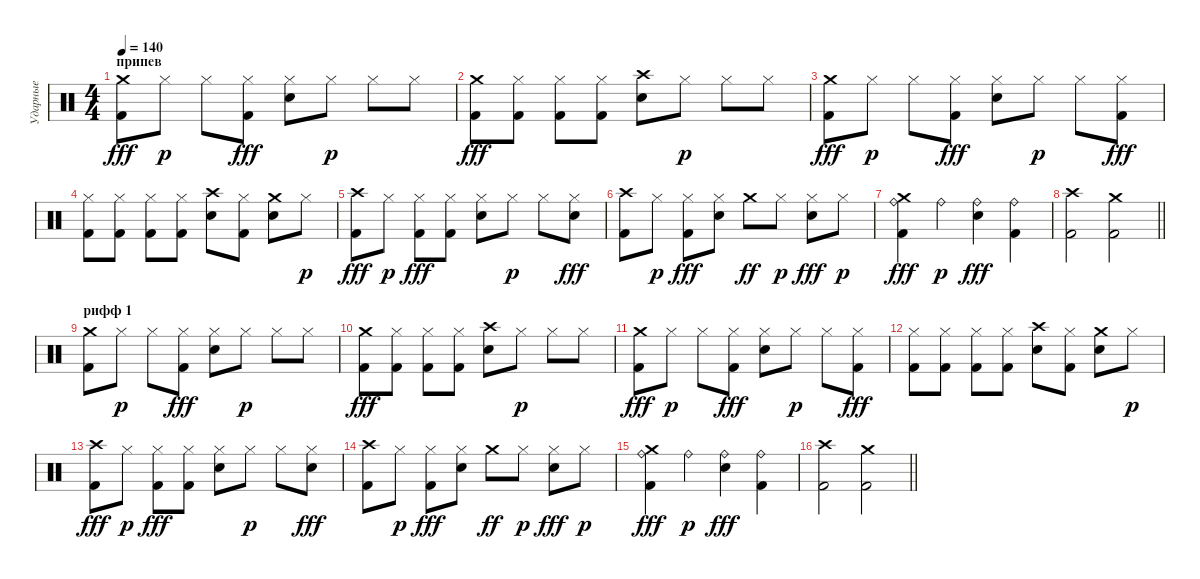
\track ("Ударные" "Ударные") {instrument percussion}
\staff {score}
\articulation defaults
\ts (4 4)
\section ("" "припев")
\tempo 140
\clef neutral
\ks c
("Crash medium (hit)" "Kick (hit) 2").8{dy fff} "Hi-Hat (closed)".8{dy p} "Hi-Hat (closed)".8 ("Hi-Hat (closed)" "Kick (hit) 2").8{dy fff} ("Hi-Hat (closed)" "Snare (hit) 2").8 "Hi-Hat (closed)".8{dy p} "Hi-Hat (closed)".8 "Hi-Hat (closed)".8 |
("Crash medium (hit)" "Kick (hit) 2").8{dy fff} ("Hi-Hat (closed)" "Kick (hit) 2").8 ("Hi-Hat (closed)" "Kick (hit) 2").8 ("Hi-Hat (closed)" "Kick (hit) 2").8 ("Crash high (hit)" "Snare (hit) 2").8 "Hi-Hat (closed)".8{dy p} "Hi-Hat (closed)".8 "Hi-Hat (closed)".8 |
("Crash medium (hit)" "Kick (hit) 2").8{dy fff} "Hi-Hat (closed)".8{dy p} "Hi-Hat (closed)".8 ("Hi-Hat (closed)" "Kick (hit) 2").8{dy fff} ("Hi-Hat (closed)" "Snare (hit) 2").8 "Hi-Hat (closed)".8{dy p} "Hi-Hat (closed)".8 ("Hi-Hat (closed)" "Kick (hit) 2").8{dy fff} |
("Hi-Hat (closed)" "Kick (hit) 2").8 ("Hi-Hat (closed)" "Kick (hit) 2").8 ("Hi-Hat (closed)" "Kick (hit) 2").8 ("Hi-Hat (closed)" "Kick (hit) 2").8 ("Crash high (hit)" "Snare (hit) 2").8 ("Hi-Hat (closed)" "Kick (hit) 2").8 ("Crash medium (hit)" "Snare (hit) 2").8 "Hi-Hat (closed)".8{dy p} |
("Crash high (hit)" "Kick (hit) 2").8{dy fff} "Hi-Hat (closed)".8{dy p} ("Hi-Hat (closed)" "Kick (hit) 2").8{dy fff} ("Hi-Hat (closed)" "Kick (hit) 2").8 ("Hi-Hat (closed)" "Snare (hit) 2").8 "Hi-Hat (closed)".8{dy p} "Hi-Hat (closed)".8 ("Hi-Hat (closed)" "Snare (hit) 2").8{dy fff} |
("Crash high (hit)" "Kick (hit) 2").8 "Hi-Hat (closed)".8{dy p} ("Hi-Hat (closed)" "Kick (hit) 2").8{dy fff} ("Hi-Hat (closed)" "Snare (hit) 2").8 "Crash medium (hit)".8{dy ff} "Hi-Hat (closed)".8{dy p} ("Hi-Hat (closed)" "Snare (hit) 2").8{dy fff} "Hi-Hat (closed)".8{dy p} |
("Crash medium (hit)" "Ride (bell)" "Kick (hit) 2").4{dy fff} "Ride (bell)".4{dy p} ("Ride (bell)" "Snare (hit) 2").4{dy fff} ("Ride (bell)" "Kick (hit) 2").4 |
\barLineRight lightlight
("Crash high (hit)" "Kick (hit) 2").2 ("Crash medium (hit)" "Kick (hit) 2").2 |
\section ("" "рифф 1")
("Crash medium (hit)" "Kick (hit) 2").8 "Hi-Hat (closed)".8{dy p} "Hi-Hat (closed)".8 ("Hi-Hat (closed)" "Kick (hit) 2").8{dy fff} ("Hi-Hat (closed)" "Snare (hit) 2").8 "Hi-Hat (closed)".8{dy p} "Hi-Hat (closed)".8 "Hi-Hat (closed)".8 |
("Crash medium (hit)" "Kick (hit) 2").8{dy fff} ("Hi-Hat (closed)" "Kick (hit) 2").8 ("Hi-Hat (closed)" "Kick (hit) 2").8 ("Hi-Hat (closed)" "Kick (hit) 2").8 ("Crash high (hit)" "Snare (hit) 2").8 "Hi-Hat (closed)".8{dy p} "Hi-Hat (closed)".8 "Hi-Hat (closed)".8 |
("Crash medium (hit)" "Kick (hit) 2").8{dy fff} "Hi-Hat (closed)".8{dy p} "Hi-Hat (closed)".8 ("Hi-Hat (closed)" "Kick (hit) 2").8{dy fff} ("Hi-Hat (closed)" "Snare (hit) 2").8 "Hi-Hat (closed)".8{dy p} "Hi-Hat (closed)".8 ("Hi-Hat (closed)" "Kick (hit) 2").8{dy fff} |
("Hi-Hat (closed)" "Kick (hit) 2").8 ("Hi-Hat (closed)" "Kick (hit) 2").8 ("Hi-Hat (closed)" "Kick (hit) 2").8 ("Hi-Hat (closed)" "Kick (hit) 2").8 ("Crash high (hit)" "Snare (hit) 2").8 ("Hi-Hat (closed)" "Kick (hit) 2").8 ("Crash medium (hit)" "Snare (hit) 2").8 "Hi-Hat (closed)".8{dy p} |
("Crash high (hit)" "Kick (hit) 2").8{dy fff} "Hi-Hat (closed)".8{dy p} ("Hi-Hat (closed)" "Kick (hit) 2").8{dy fff} ("Hi-Hat (closed)" "Kick (hit) 2").8 ("Hi-Hat (closed)" "Snare (hit) 2").8 "Hi-Hat (closed)".8{dy p} "Hi-Hat (closed)".8 ("Hi-Hat (closed)" "Snare (hit) 2").8{dy fff} |
("Crash high (hit)" "Kick (hit) 2").8 "Hi-Hat (closed)".8{dy p} ("Hi-Hat (closed)" "Kick (hit) 2").8{dy fff} ("Hi-Hat (closed)" "Snare (hit) 2").8 "Crash medium (hit)".8{dy ff} "Hi-Hat (closed)".8{dy p} ("Hi-Hat (closed)" "Snare (hit) 2").8{dy fff} "Hi-Hat (closed)".8{dy p} |
("Crash medium (hit)" "Ride (bell)" "Kick (hit) 2").4{dy fff} "Ride (bell)".4{dy p} ("Ride (bell)" "Snare (hit) 2").4{dy fff} ("Ride (bell)" "Kick (hit) 2").4 |
\barLineRight lightlight
("Crash high (hit)" "Kick (hit) 2").2 ("Crash medium (hit)" "Kick (hit) 2").2
